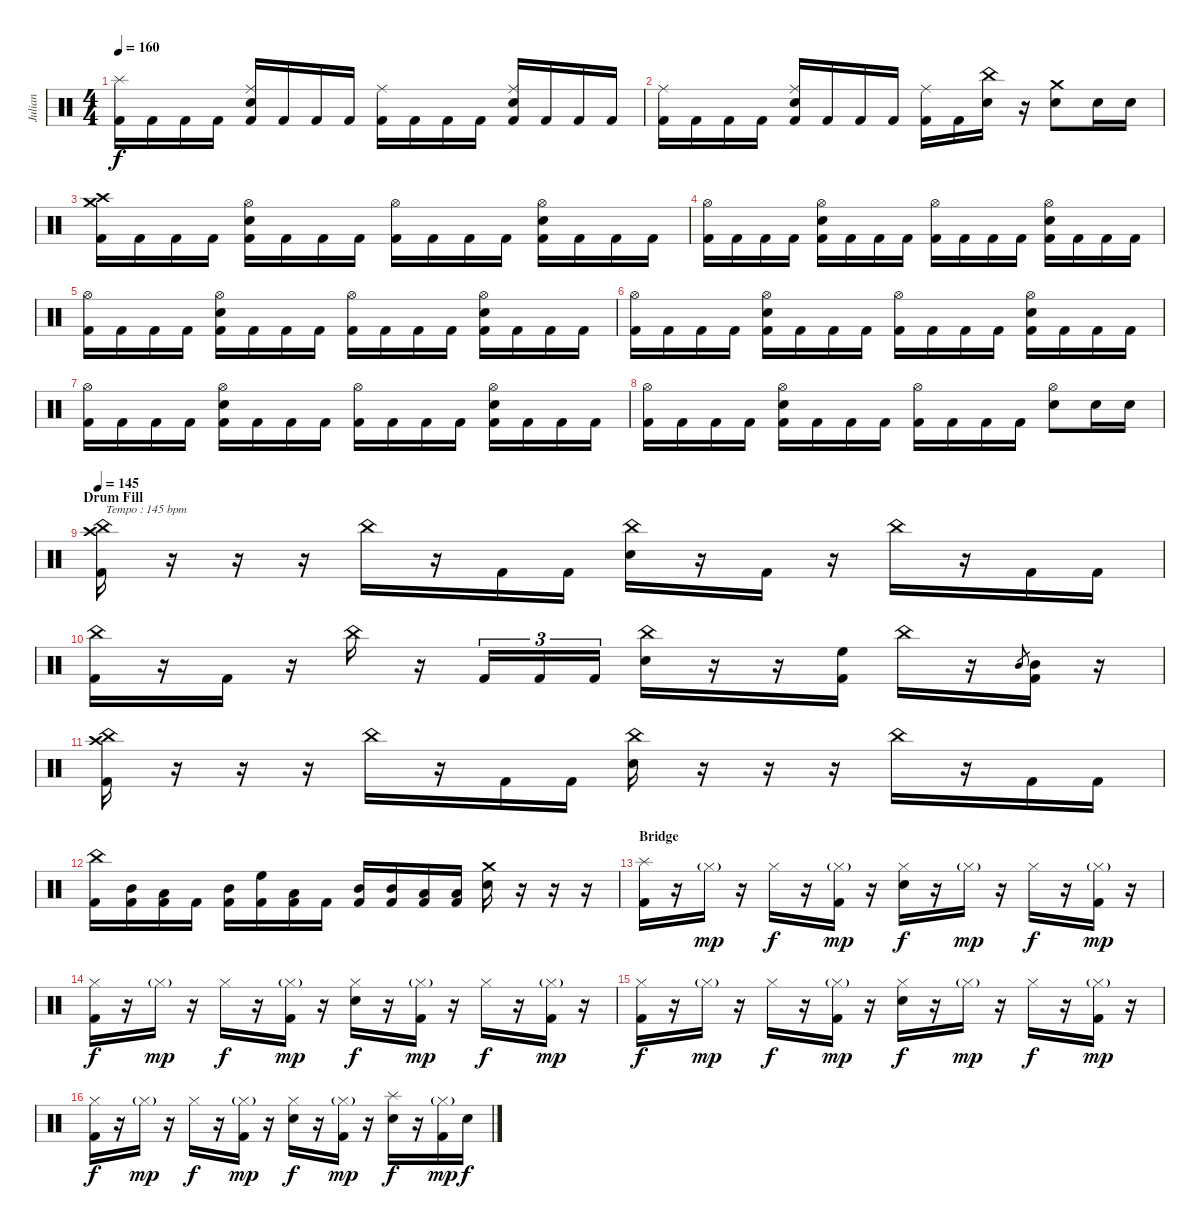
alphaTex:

\track ("Julian" "Julian") {instrument percussion}
\staff {score}
\articulation defaults
\ts (4 4)
\tempo 160
\clef neutral
\ks c
("Splash (hit)" "Kick (hit) 2").16{dy f} "Kick (hit) 2".16 "Kick (hit) 2".16 "Kick (hit) 2".16 ("Ride (middle)" "Electric Snare (hit)" "Kick (hit) 2").16 "Kick (hit) 2".16 "Kick (hit) 2".16 "Kick (hit) 2".16 ("Ride (middle)" "Kick (hit) 2").16 "Kick (hit) 2".16 "Kick (hit) 2".16 "Kick (hit) 2".16 ("Ride (middle)" "Electric Snare (hit)" "Kick (hit) 2").16 "Kick (hit) 2".16 "Kick (hit) 2".16 "Kick (hit) 2".16 |
("Ride (middle)" "Kick (hit) 2").16 "Kick (hit) 2".16 "Kick (hit) 2".16 "Kick (hit) 2".16 ("Ride (middle)" "Electric Snare (hit)" "Kick (hit) 2").16 "Kick (hit) 2".16 "Kick (hit) 2".16 "Kick (hit) 2".16 ("Ride (middle)" "Kick (hit) 2").16 "Kick (hit) 2".16 ("China (hit)" "Electric Snare (hit)").16 r.16 ("Crash medium (hit)" "Electric Snare (hit)").8 "Electric Snare (hit)".16 "Electric Snare (hit)".16 |
("Crash high (hit)" "Crash medium (hit)" "Kick (hit) 2").16 "Kick (hit) 2".16 "Kick (hit) 2".16 "Kick (hit) 2".16 ("Hi-Hat (open)" "Electric Snare (hit)" "Kick (hit) 2").16 "Kick (hit) 2".16 "Kick (hit) 2".16 "Kick (hit) 2".16 ("Hi-Hat (open)" "Kick (hit) 2").16 "Kick (hit) 2".16 "Kick (hit) 2".16 "Kick (hit) 2".16 ("Hi-Hat (open)" "Electric Snare (hit)" "Kick (hit) 2").16 "Kick (hit) 2".16 "Kick (hit) 2".16 "Kick (hit) 2".16 |
("Hi-Hat (open)" "Kick (hit) 2").16 "Kick (hit) 2".16 "Kick (hit) 2".16 "Kick (hit) 2".16 ("Hi-Hat (open)" "Electric Snare (hit)" "Kick (hit) 2").16 "Kick (hit) 2".16 "Kick (hit) 2".16 "Kick (hit) 2".16 ("Hi-Hat (open)" "Kick (hit) 2").16 "Kick (hit) 2".16 "Kick (hit) 2".16 "Kick (hit) 2".16 ("Hi-Hat (open)" "Electric Snare (hit)" "Kick (hit) 2").16 "Kick (hit) 2".16 "Kick (hit) 2".16 "Kick (hit) 2".16 |
("Hi-Hat (open)" "Kick (hit) 2").16 "Kick (hit) 2".16 "Kick (hit) 2".16 "Kick (hit) 2".16 ("Hi-Hat (open)" "Electric Snare (hit)" "Kick (hit) 2").16 "Kick (hit) 2".16 "Kick (hit) 2".16 "Kick (hit) 2".16 ("Hi-Hat (open)" "Kick (hit) 2").16 "Kick (hit) 2".16 "Kick (hit) 2".16 "Kick (hit) 2".16 ("Hi-Hat (open)" "Electric Snare (hit)" "Kick (hit) 2").16 "Kick (hit) 2".16 "Kick (hit) 2".16 "Kick (hit) 2".16 |
("Hi-Hat (open)" "Kick (hit) 2").16 "Kick (hit) 2".16 "Kick (hit) 2".16 "Kick (hit) 2".16 ("Hi-Hat (open)" "Electric Snare (hit)" "Kick (hit) 2").16 "Kick (hit) 2".16 "Kick (hit) 2".16 "Kick (hit) 2".16 ("Hi-Hat (open)" "Kick (hit) 2").16 "Kick (hit) 2".16 "Kick (hit) 2".16 "Kick (hit) 2".16 ("Hi-Hat (open)" "Electric Snare (hit)" "Kick (hit) 2").16 "Kick (hit) 2".16 "Kick (hit) 2".16 "Kick (hit) 2".16 |
("Hi-Hat (open)" "Kick (hit) 2").16 "Kick (hit) 2".16 "Kick (hit) 2".16 "Kick (hit) 2".16 ("Hi-Hat (open)" "Electric Snare (hit)" "Kick (hit) 2").16 "Kick (hit) 2".16 "Kick (hit) 2".16 "Kick (hit) 2".16 ("Hi-Hat (open)" "Kick (hit) 2").16 "Kick (hit) 2".16 "Kick (hit) 2".16 "Kick (hit) 2".16 ("Hi-Hat (open)" "Electric Snare (hit)" "Kick (hit) 2").16 "Kick (hit) 2".16 "Kick (hit) 2".16 "Kick (hit) 2".16 |
("Hi-Hat (open)" "Kick (hit) 2").16 "Kick (hit) 2".16 "Kick (hit) 2".16 "Kick (hit) 2".16 ("Hi-Hat (open)" "Electric Snare (hit)" "Kick (hit) 2").16 "Kick (hit) 2".16 "Kick (hit) 2".16 "Kick (hit) 2".16 ("Hi-Hat (open)" "Kick (hit) 2").16 "Kick (hit) 2".16 "Kick (hit) 2".16 "Kick (hit) 2".16 ("Hi-Hat (open)" "Electric Snare (hit)").8 "Electric Snare (hit)".16 "Electric Snare (hit)".16 |
\section ("" "Drum Fill")
\tempo 145
("China (hit)" "Crash high (hit)" "Kick (hit) 2").16{txt "Tempo : 145 bpm"} r.16 r.16 r.16 "China (hit)".16 r.16 "Kick (hit) 2".16 "Kick (hit) 2".16 ("China (hit)" "Electric Snare (hit)").16 r.16 "Kick (hit) 2".16 r.16 "China (hit)".16 r.16 "Kick (hit) 2".16 "Kick (hit) 2".16 |
("China (hit)" "Kick (hit) 2").16 r.16 "Kick (hit) 2".16 r.16 "China (hit)".16 r.16 "Kick (hit) 2".16{tu (3 2)} "Kick (hit) 2".16{tu (3 2)} "Kick (hit) 2".16{tu (3 2)} ("China (hit)" "Electric Snare (hit)").16 r.16 r.16 ("High Floor Tom (hit)" "Kick (hit) 2").16 "China (hit)".16 r.16 "Mid Tom (hit)".8{gr} ("Mid Tom (hit)" "Kick (hit) 2").16 r.16 |
("China (hit)" "Crash high (hit)" "Kick (hit) 2").16 r.16 r.16 r.16 "China (hit)".16 r.16 "Kick (hit) 2".16 "Kick (hit) 2".16 ("China (hit)" "Electric Snare (hit)").16 r.16 r.16 r.16 "China (hit)".16 r.16 "Kick (hit) 2".16 "Kick (hit) 2".16 |
("China (hit)" "Kick (hit) 2").16 ("Mid Tom (hit)" "Kick (hit) 2").16 ("Low Tom (hit)" "Kick (hit) 2").16 "Kick (hit) 2".16 ("Mid Tom (hit)" "Kick (hit) 2").16 ("High Floor Tom (hit)" "Kick (hit) 2").16 ("Low Tom (hit)" "Kick (hit) 2").16 "Kick (hit) 2".16 ("Mid Tom (hit)" "Kick (hit) 2").16 ("Mid Tom (hit)" "Kick (hit) 2").16 ("Low Tom (hit)" "Kick (hit) 2").16 ("Low Tom (hit)" "Kick (hit) 2").16 ("Crash medium (hit)" "Electric Snare (hit)").16 r.16 r.16 r.16 |
\section ("" "Bridge")
("Splash (hit)" "Kick (hit) 2").16 r.16 "Hi-Hat (closed)"{g}.16{dy mp} r.16 "Hi-Hat (closed)".16{dy f} r.16 ("Hi-Hat (closed)"{g} "Kick (hit) 2").16{dy mp} r.16 ("Hi-Hat (closed)" "Electric Snare (hit)").16{dy f} r.16 "Hi-Hat (closed)"{g}.16{dy mp} r.16 "Hi-Hat (closed)".16{dy f} r.16 ("Hi-Hat (closed)"{g} "Kick (hit) 2").16{dy mp} r.16 |
("Hi-Hat (closed)" "Kick (hit) 2").16{dy f} r.16 "Hi-Hat (closed)"{g}.16{dy mp} r.16 "Hi-Hat (closed)".16{dy f} r.16 ("Hi-Hat (closed)"{g} "Kick (hit) 2").16{dy mp} r.16 ("Hi-Hat (closed)" "Electric Snare (hit)").16{dy f} r.16 ("Hi-Hat (closed)"{g} "Kick (hit) 2").16{dy mp} r.16 "Hi-Hat (closed)".16{dy f} r.16 ("Hi-Hat (closed)"{g} "Kick (hit) 2").16{dy mp} r.16 |
("Hi-Hat (closed)" "Kick (hit) 2").16{dy f} r.16 "Hi-Hat (closed)"{g}.16{dy mp} r.16 "Hi-Hat (closed)".16{dy f} r.16 ("Hi-Hat (closed)"{g} "Kick (hit) 2").16{dy mp} r.16 ("Hi-Hat (closed)" "Electric Snare (hit)").16{dy f} r.16 "Hi-Hat (closed)"{g}.16{dy mp} r.16 "Hi-Hat (closed)".16{dy f} r.16 ("Hi-Hat (closed)"{g} "Kick (hit) 2").16{dy mp} r.16 |
("Hi-Hat (closed)" "Kick (hit) 2").16{dy f} r.16 "Hi-Hat (closed)"{g}.16{dy mp} r.16 "Hi-Hat (closed)".16{dy f} r.16 ("Hi-Hat (closed)"{g} "Kick (hit) 2").16{dy mp} r.16 ("Hi-Hat (closed)" "Electric Snare (hit)").16{dy f} r.16 ("Hi-Hat (closed)"{g} "Kick (hit) 2").16{dy mp} r.16 ("Splash (hit)" "Electric Snare (hit)").16{dy f} r.16 ("Hi-Hat (closed)"{g} "Kick (hit) 2").16{dy mp} "Electric Snare (hit)".16{dy f}
